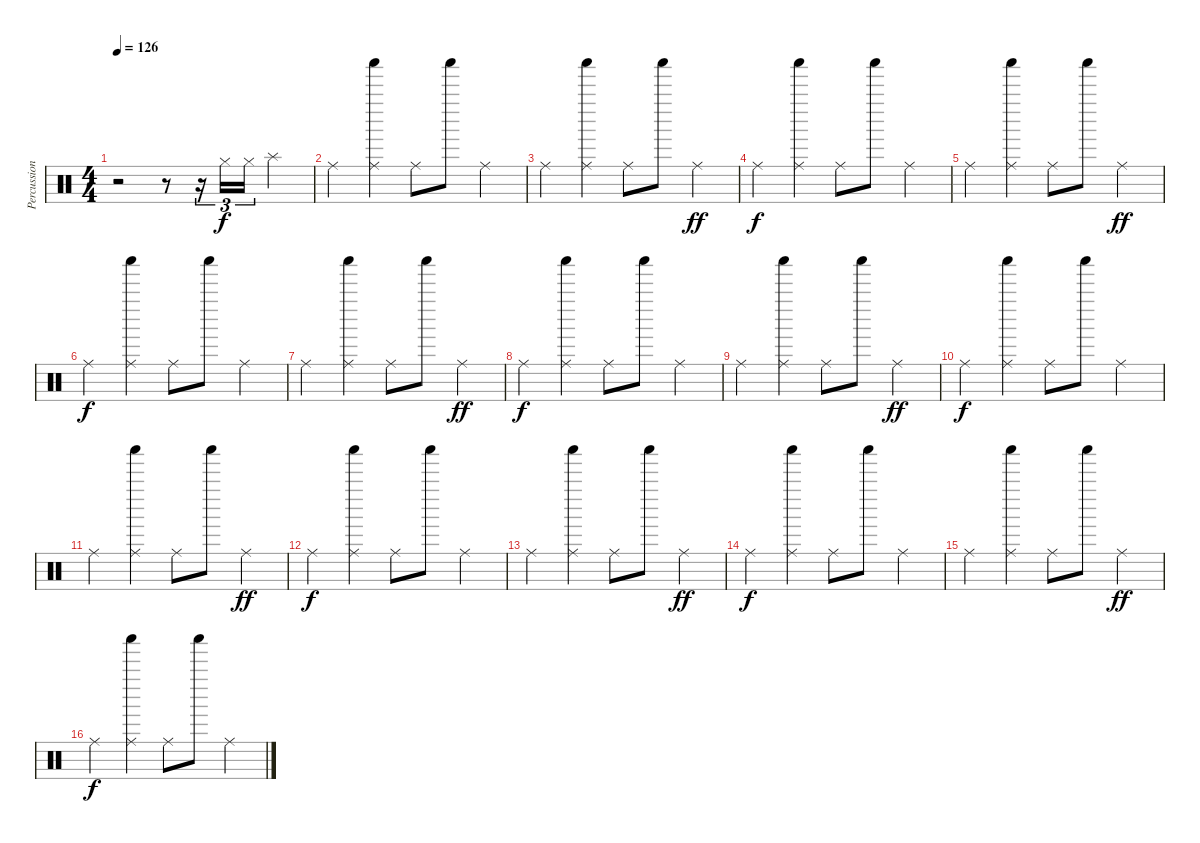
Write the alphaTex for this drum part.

\track ("Percussion" "Percussion") {instrument percussion}
\staff {score}
\articulation defaults
\ts (4 4)
\tempo 126
\clef neutral
\ks c
r.2{dy f} r.8 r.16{tu (3 2)} "Hi-Hat (closed)".16{tu (3 2)} "Hi-Hat (closed)".16{tu (3 2)} "Splash (hit)".4 |
"Ride (middle)".4 ("Ride (middle)" "Shaker (hit)").4 "Ride (middle)".8 "Shaker (hit)".8 "Ride (middle)".4 |
"Ride (middle)".4 ("Ride (middle)" "Shaker (hit)").4 "Ride (middle)".8 "Shaker (hit)".8 "Ride (middle)".4{dy ff} |
"Ride (middle)".4{dy f} ("Ride (middle)" "Shaker (hit)").4 "Ride (middle)".8 "Shaker (hit)".8 "Ride (middle)".4 |
"Ride (middle)".4 ("Ride (middle)" "Shaker (hit)").4 "Ride (middle)".8 "Shaker (hit)".8 "Ride (middle)".4{dy ff} |
"Ride (middle)".4{dy f} ("Ride (middle)" "Shaker (hit)").4 "Ride (middle)".8 "Shaker (hit)".8 "Ride (middle)".4 |
"Ride (middle)".4 ("Ride (middle)" "Shaker (hit)").4 "Ride (middle)".8 "Shaker (hit)".8 "Ride (middle)".4{dy ff} |
"Ride (middle)".4{dy f} ("Ride (middle)" "Shaker (hit)").4 "Ride (middle)".8 "Shaker (hit)".8 "Ride (middle)".4 |
"Ride (middle)".4 ("Ride (middle)" "Shaker (hit)").4 "Ride (middle)".8 "Shaker (hit)".8 "Ride (middle)".4{dy ff} |
"Ride (middle)".4{dy f} ("Ride (middle)" "Shaker (hit)").4 "Ride (middle)".8 "Shaker (hit)".8 "Ride (middle)".4 |
"Ride (middle)".4 ("Ride (middle)" "Shaker (hit)").4 "Ride (middle)".8 "Shaker (hit)".8 "Ride (middle)".4{dy ff} |
"Ride (middle)".4{dy f} ("Ride (middle)" "Shaker (hit)").4 "Ride (middle)".8 "Shaker (hit)".8 "Ride (middle)".4 |
"Ride (middle)".4 ("Ride (middle)" "Shaker (hit)").4 "Ride (middle)".8 "Shaker (hit)".8 "Ride (middle)".4{dy ff} |
"Ride (middle)".4{dy f} ("Ride (middle)" "Shaker (hit)").4 "Ride (middle)".8 "Shaker (hit)".8 "Ride (middle)".4 |
"Ride (middle)".4 ("Ride (middle)" "Shaker (hit)").4 "Ride (middle)".8 "Shaker (hit)".8 "Ride (middle)".4{dy ff} |
"Ride (middle)".4{dy f} ("Ride (middle)" "Shaker (hit)").4 "Ride (middle)".8 "Shaker (hit)".8 "Ride (middle)".4
